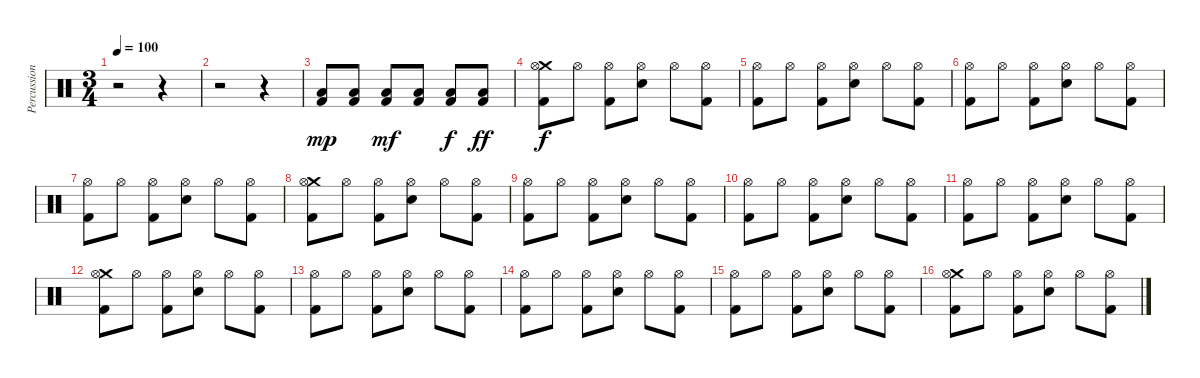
\track ("Percussion" "Percussion") {instrument percussion}
\staff {score}
\articulation defaults
\ts (3 4)
\tempo 100
\clef neutral
\ks c
r.2{dy f} r.4 |
r.2 r.4 |
("Low Floor Tom (hit)" "Kick (hit) 2").8{dy mp} ("Low Floor Tom (hit)" "Kick (hit) 2").8 ("Low Floor Tom (hit)" "Kick (hit) 2").8{dy mf} ("Low Floor Tom (hit)" "Kick (hit) 2").8 ("Low Floor Tom (hit)" "Kick (hit) 2").8{dy f} ("Low Floor Tom (hit)" "Kick (hit) 2").8{dy ff} |
("Crash medium (hit)" "Hi-Hat (open)" "Kick (hit) 2").8{dy f} "Hi-Hat (open)".8 ("Hi-Hat (open)" "Kick (hit) 2").8 ("Hi-Hat (open)" "Electric Snare (hit)").8 "Hi-Hat (open)".8 ("Hi-Hat (open)" "Kick (hit) 2").8 |
("Hi-Hat (open)" "Kick (hit) 2").8 "Hi-Hat (open)".8 ("Hi-Hat (open)" "Kick (hit) 2").8 ("Hi-Hat (open)" "Electric Snare (hit)").8 "Hi-Hat (open)".8 ("Hi-Hat (open)" "Kick (hit) 2").8 |
("Hi-Hat (open)" "Kick (hit) 2").8 "Hi-Hat (open)".8 ("Hi-Hat (open)" "Kick (hit) 2").8 ("Hi-Hat (open)" "Electric Snare (hit)").8 "Hi-Hat (open)".8 ("Hi-Hat (open)" "Kick (hit) 2").8 |
("Hi-Hat (open)" "Kick (hit) 2").8 "Hi-Hat (open)".8 ("Hi-Hat (open)" "Kick (hit) 2").8 ("Hi-Hat (open)" "Electric Snare (hit)").8 "Hi-Hat (open)".8 ("Hi-Hat (open)" "Kick (hit) 2").8 |
("Crash medium (hit)" "Hi-Hat (open)" "Kick (hit) 2").8 "Hi-Hat (open)".8 ("Hi-Hat (open)" "Kick (hit) 2").8 ("Hi-Hat (open)" "Electric Snare (hit)").8 "Hi-Hat (open)".8 ("Hi-Hat (open)" "Kick (hit) 2").8 |
("Hi-Hat (open)" "Kick (hit) 2").8 "Hi-Hat (open)".8 ("Hi-Hat (open)" "Kick (hit) 2").8 ("Hi-Hat (open)" "Electric Snare (hit)").8 "Hi-Hat (open)".8 ("Hi-Hat (open)" "Kick (hit) 2").8 |
("Hi-Hat (open)" "Kick (hit) 2").8 "Hi-Hat (open)".8 ("Hi-Hat (open)" "Kick (hit) 2").8 ("Hi-Hat (open)" "Electric Snare (hit)").8 "Hi-Hat (open)".8 ("Hi-Hat (open)" "Kick (hit) 2").8 |
("Hi-Hat (open)" "Kick (hit) 2").8 "Hi-Hat (open)".8 ("Hi-Hat (open)" "Kick (hit) 2").8 ("Hi-Hat (open)" "Electric Snare (hit)").8 "Hi-Hat (open)".8 ("Hi-Hat (open)" "Kick (hit) 2").8 |
("Crash medium (hit)" "Hi-Hat (open)" "Kick (hit) 2").8 "Hi-Hat (open)".8 ("Hi-Hat (open)" "Kick (hit) 2").8 ("Hi-Hat (open)" "Electric Snare (hit)").8 "Hi-Hat (open)".8 ("Hi-Hat (open)" "Kick (hit) 2").8 |
("Hi-Hat (open)" "Kick (hit) 2").8 "Hi-Hat (open)".8 ("Hi-Hat (open)" "Kick (hit) 2").8 ("Hi-Hat (open)" "Electric Snare (hit)").8 "Hi-Hat (open)".8 ("Hi-Hat (open)" "Kick (hit) 2").8 |
("Hi-Hat (open)" "Kick (hit) 2").8 "Hi-Hat (open)".8 ("Hi-Hat (open)" "Kick (hit) 2").8 ("Hi-Hat (open)" "Electric Snare (hit)").8 "Hi-Hat (open)".8 ("Hi-Hat (open)" "Kick (hit) 2").8 |
("Hi-Hat (open)" "Kick (hit) 2").8 "Hi-Hat (open)".8 ("Hi-Hat (open)" "Kick (hit) 2").8 ("Hi-Hat (open)" "Electric Snare (hit)").8 "Hi-Hat (open)".8 ("Hi-Hat (open)" "Kick (hit) 2").8 |
("Crash medium (hit)" "Hi-Hat (open)" "Kick (hit) 2").8 "Hi-Hat (open)".8 ("Hi-Hat (open)" "Kick (hit) 2").8 ("Hi-Hat (open)" "Electric Snare (hit)").8 "Hi-Hat (open)".8 ("Hi-Hat (open)" "Kick (hit) 2").8
